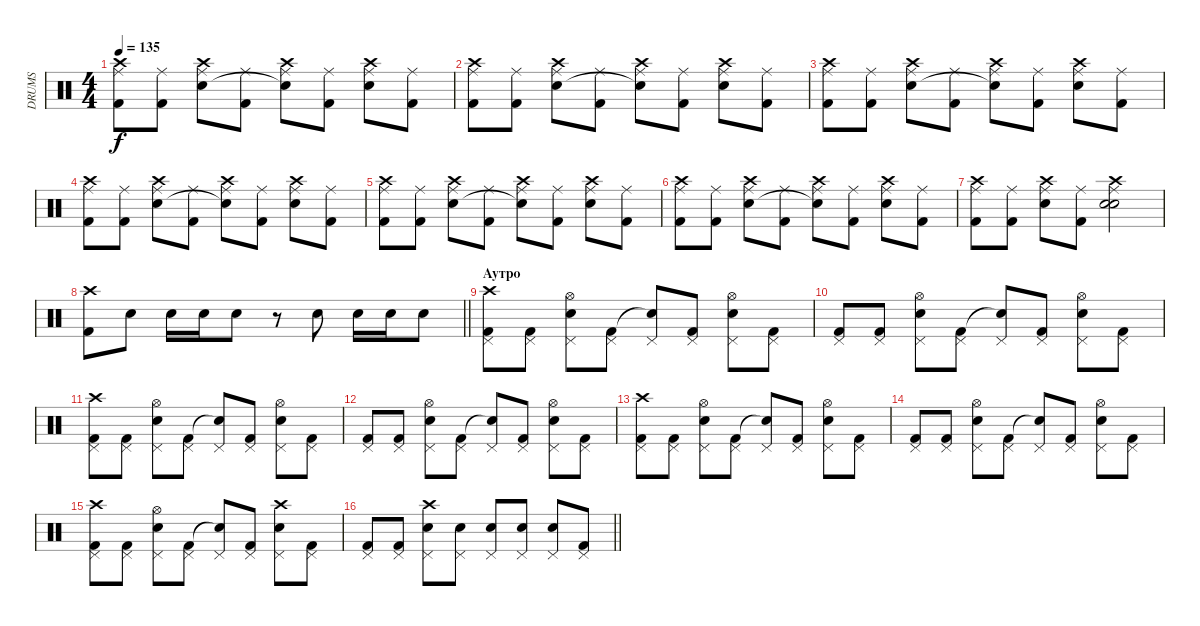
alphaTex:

\track ("DRUMS" "DRUMS") {instrument percussion}
\staff {score}
\articulation defaults
\ts (4 4)
\tempo 135
\clef neutral
\ks c
("Crash high (hit)" "Ride (middle)" "Kick (hit) 2").8{dy f} ("Ride (middle)" "Kick (hit) 2").8 ("Crash high (hit)" "Ride (middle)" "Snare (hit) 2").8 ("Ride (middle)" "Kick (hit) 2").8 ("Crash high (hit)" "Ride (middle)" "Snare (hit)"{t}).8 ("Ride (middle)" "Kick (hit) 2").8 ("Crash high (hit)" "Ride (middle)" "Snare (hit) 2").8 ("Ride (middle)" "Kick (hit) 2").8 |
("Crash high (hit)" "Ride (middle)" "Kick (hit) 2").8 ("Ride (middle)" "Kick (hit) 2").8 ("Crash high (hit)" "Ride (middle)" "Snare (hit) 2").8 ("Ride (middle)" "Kick (hit) 2").8 ("Crash high (hit)" "Ride (middle)" "Snare (hit)"{t}).8 ("Ride (middle)" "Kick (hit) 2").8 ("Crash high (hit)" "Ride (middle)" "Snare (hit) 2").8 ("Ride (middle)" "Kick (hit) 2").8 |
("Crash high (hit)" "Ride (middle)" "Kick (hit) 2").8 ("Ride (middle)" "Kick (hit) 2").8 ("Crash high (hit)" "Ride (middle)" "Snare (hit) 2").8 ("Ride (middle)" "Kick (hit) 2").8 ("Crash high (hit)" "Ride (middle)" "Snare (hit)"{t}).8 ("Ride (middle)" "Kick (hit) 2").8 ("Crash high (hit)" "Ride (middle)" "Snare (hit) 2").8 ("Ride (middle)" "Kick (hit) 2").8 |
("Crash high (hit)" "Ride (middle)" "Kick (hit) 2").8 ("Ride (middle)" "Kick (hit) 2").8 ("Crash high (hit)" "Ride (middle)" "Snare (hit) 2").8 ("Ride (middle)" "Kick (hit) 2").8 ("Crash high (hit)" "Ride (middle)" "Snare (hit)"{t}).8 ("Ride (middle)" "Kick (hit) 2").8 ("Crash high (hit)" "Ride (middle)" "Snare (hit) 2").8 ("Ride (middle)" "Kick (hit) 2").8 |
("Crash high (hit)" "Ride (middle)" "Kick (hit) 2").8 ("Ride (middle)" "Kick (hit) 2").8 ("Crash high (hit)" "Ride (middle)" "Snare (hit) 2").8 ("Ride (middle)" "Kick (hit) 2").8 ("Crash high (hit)" "Ride (middle)" "Snare (hit)"{t}).8 ("Ride (middle)" "Kick (hit) 2").8 ("Crash high (hit)" "Ride (middle)" "Snare (hit) 2").8 ("Ride (middle)" "Kick (hit) 2").8 |
("Crash high (hit)" "Ride (middle)" "Kick (hit) 2").8 ("Ride (middle)" "Kick (hit) 2").8 ("Crash high (hit)" "Ride (middle)" "Snare (hit) 2").8 ("Ride (middle)" "Kick (hit) 2").8 ("Crash high (hit)" "Ride (middle)" "Snare (hit)"{t}).8 ("Ride (middle)" "Kick (hit) 2").8 ("Crash high (hit)" "Ride (middle)" "Snare (hit) 2").8 ("Ride (middle)" "Kick (hit) 2").8 |
("Crash high (hit)" "Ride (middle)" "Kick (hit) 2").8 ("Ride (middle)" "Kick (hit) 2").8 ("Crash high (hit)" "Ride (middle)" "Snare (hit) 2").8 ("Ride (middle)" "Kick (hit) 2").8 ("Crash high (hit)" "Ride (middle)" "Snare (hit) 2" "Snare (hit)").2 |
\barLineRight lightlight
("Crash high (hit)" "Kick (hit) 2").8 "Snare (hit) 2".8 "Snare (hit) 2".16 "Snare (hit) 2".16 "Snare (hit) 2".8 r.8 "Snare (hit) 2".8 "Snare (hit) 2".16 "Snare (hit) 2".16 "Snare (hit) 2".8 |
\section ("" "Аутро")
("Crash high (hit)" "Pedal Hi-Hat (hit)" "Kick (hit) 2").8 ("Pedal Hi-Hat (hit)" "Kick (hit) 2").8 ("Hi-Hat (open)" "Pedal Hi-Hat (hit)" "Snare (hit) 2").8 ("Pedal Hi-Hat (hit)" "Kick (hit) 2").8 ("Pedal Hi-Hat (hit)" "Snare (hit)"{t}).8 ("Pedal Hi-Hat (hit)" "Kick (hit) 2").8 ("Hi-Hat (open)" "Pedal Hi-Hat (hit)" "Snare (hit) 2").8 ("Pedal Hi-Hat (hit)" "Kick (hit) 2").8 |
("Pedal Hi-Hat (hit)" "Kick (hit) 2").8 ("Pedal Hi-Hat (hit)" "Kick (hit) 2").8 ("Hi-Hat (open)" "Pedal Hi-Hat (hit)" "Snare (hit) 2").8 ("Pedal Hi-Hat (hit)" "Kick (hit) 2").8 ("Pedal Hi-Hat (hit)" "Snare (hit)"{t}).8 ("Pedal Hi-Hat (hit)" "Kick (hit) 2").8 ("Hi-Hat (open)" "Pedal Hi-Hat (hit)" "Snare (hit) 2").8 ("Pedal Hi-Hat (hit)" "Kick (hit) 2").8 |
("Crash high (hit)" "Pedal Hi-Hat (hit)" "Kick (hit) 2").8 ("Pedal Hi-Hat (hit)" "Kick (hit) 2").8 ("Hi-Hat (open)" "Pedal Hi-Hat (hit)" "Snare (hit) 2").8 ("Pedal Hi-Hat (hit)" "Kick (hit) 2").8 ("Pedal Hi-Hat (hit)" "Snare (hit)"{t}).8 ("Pedal Hi-Hat (hit)" "Kick (hit) 2").8 ("Hi-Hat (open)" "Pedal Hi-Hat (hit)" "Snare (hit) 2").8 ("Pedal Hi-Hat (hit)" "Kick (hit) 2").8 |
("Pedal Hi-Hat (hit)" "Kick (hit) 2").8 ("Pedal Hi-Hat (hit)" "Kick (hit) 2").8 ("Hi-Hat (open)" "Pedal Hi-Hat (hit)" "Snare (hit) 2").8 ("Pedal Hi-Hat (hit)" "Kick (hit) 2").8 ("Pedal Hi-Hat (hit)" "Snare (hit)"{t}).8 ("Pedal Hi-Hat (hit)" "Kick (hit) 2").8 ("Hi-Hat (open)" "Pedal Hi-Hat (hit)" "Snare (hit) 2").8 ("Pedal Hi-Hat (hit)" "Kick (hit) 2").8 |
("Crash high (hit)" "Pedal Hi-Hat (hit)" "Kick (hit) 2").8 ("Pedal Hi-Hat (hit)" "Kick (hit) 2").8 ("Hi-Hat (open)" "Pedal Hi-Hat (hit)" "Snare (hit) 2").8 ("Pedal Hi-Hat (hit)" "Kick (hit) 2").8 ("Pedal Hi-Hat (hit)" "Snare (hit)"{t}).8 ("Pedal Hi-Hat (hit)" "Kick (hit) 2").8 ("Hi-Hat (open)" "Pedal Hi-Hat (hit)" "Snare (hit) 2").8 ("Pedal Hi-Hat (hit)" "Kick (hit) 2").8 |
("Pedal Hi-Hat (hit)" "Kick (hit) 2").8 ("Pedal Hi-Hat (hit)" "Kick (hit) 2").8 ("Hi-Hat (open)" "Pedal Hi-Hat (hit)" "Snare (hit) 2").8 ("Pedal Hi-Hat (hit)" "Kick (hit) 2").8 ("Pedal Hi-Hat (hit)" "Snare (hit)"{t}).8 ("Pedal Hi-Hat (hit)" "Kick (hit) 2").8 ("Hi-Hat (open)" "Pedal Hi-Hat (hit)" "Snare (hit) 2").8 ("Pedal Hi-Hat (hit)" "Kick (hit) 2").8 |
("Crash high (hit)" "Pedal Hi-Hat (hit)" "Kick (hit) 2").8 ("Pedal Hi-Hat (hit)" "Kick (hit) 2").8 ("Hi-Hat (open)" "Pedal Hi-Hat (hit)" "Snare (hit) 2").8 ("Pedal Hi-Hat (hit)" "Kick (hit) 2").8 ("Pedal Hi-Hat (hit)" "Snare (hit)"{t}).8 ("Pedal Hi-Hat (hit)" "Kick (hit) 2").8 ("Crash high (hit)" "Pedal Hi-Hat (hit)" "Snare (hit) 2").8 ("Pedal Hi-Hat (hit)" "Kick (hit) 2").8 |
\barLineRight lightlight
("Pedal Hi-Hat (hit)" "Kick (hit) 2").8 ("Pedal Hi-Hat (hit)" "Kick (hit) 2").8 ("Crash high (hit)" "Pedal Hi-Hat (hit)" "Snare (hit) 2").8 ("Pedal Hi-Hat (hit)" "Snare (hit) 2").8 ("Pedal Hi-Hat (hit)" "Snare (hit) 2").8 ("Pedal Hi-Hat (hit)" "Snare (hit) 2").8 ("Pedal Hi-Hat (hit)" "Snare (hit) 2").8 ("Pedal Hi-Hat (hit)" "Kick (hit) 2").8
